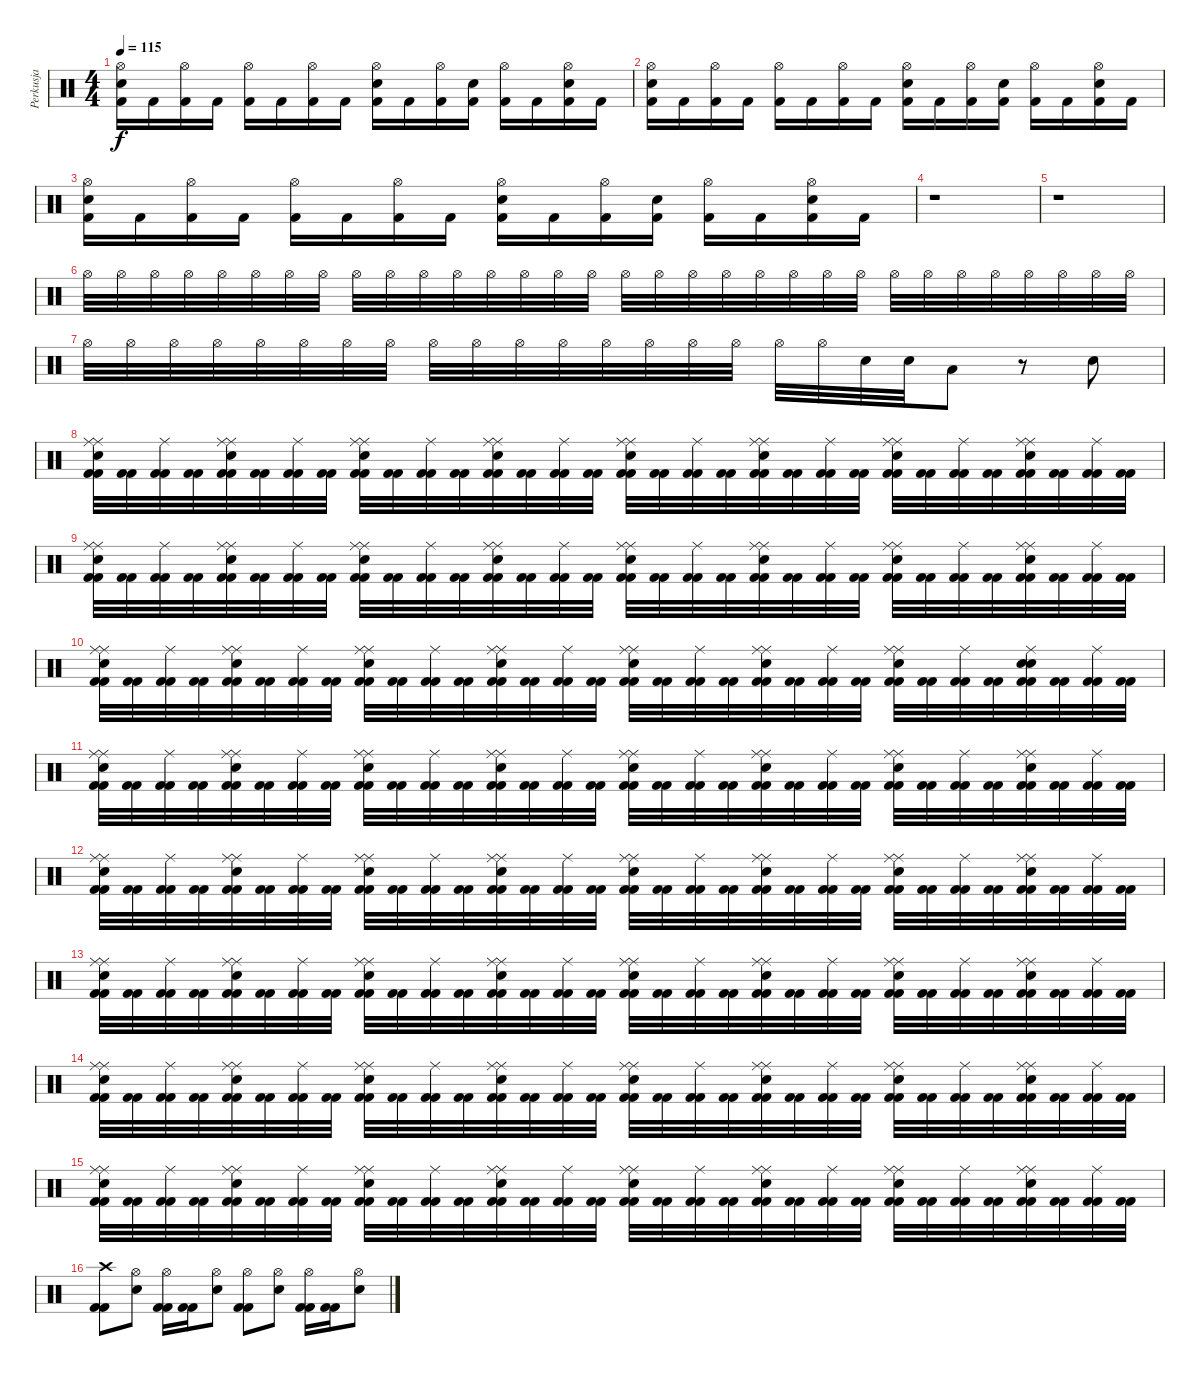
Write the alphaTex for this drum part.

\track ("Perkusja" "Perkusja") {instrument percussion}
\staff {score}
\articulation defaults
\ts (4 4)
\tempo 115
\clef neutral
\ks c
("Hi-Hat (open)" "Electric Snare (hit)" "Kick (hit) 2").16{dy f} "Kick (hit) 2".16 ("Hi-Hat (open)" "Kick (hit) 2").16 "Kick (hit) 2".16 ("Hi-Hat (open)" "Kick (hit) 2").16 "Kick (hit) 2".16 ("Hi-Hat (open)" "Kick (hit) 2").16 "Kick (hit) 2".16 ("Hi-Hat (open)" "Electric Snare (hit)" "Kick (hit) 2").16 "Kick (hit) 2".16 ("Hi-Hat (open)" "Kick (hit) 2").16 ("Electric Snare (hit)" "Kick (hit) 2").16 ("Hi-Hat (open)" "Kick (hit) 2").16 "Kick (hit) 2".16 ("Hi-Hat (open)" "Electric Snare (hit)" "Kick (hit) 2").16 "Kick (hit) 2".16 |
("Hi-Hat (open)" "Electric Snare (hit)" "Kick (hit) 2").16 "Kick (hit) 2".16 ("Hi-Hat (open)" "Kick (hit) 2").16 "Kick (hit) 2".16 ("Hi-Hat (open)" "Kick (hit) 2").16 "Kick (hit) 2".16 ("Hi-Hat (open)" "Kick (hit) 2").16 "Kick (hit) 2".16 ("Hi-Hat (open)" "Electric Snare (hit)" "Kick (hit) 2").16 "Kick (hit) 2".16 ("Hi-Hat (open)" "Kick (hit) 2").16 ("Electric Snare (hit)" "Kick (hit) 2").16 ("Hi-Hat (open)" "Kick (hit) 2").16 "Kick (hit) 2".16 ("Hi-Hat (open)" "Electric Snare (hit)" "Kick (hit) 2").16 "Kick (hit) 2".16 |
("Hi-Hat (open)" "Electric Snare (hit)" "Kick (hit) 2").16 "Kick (hit) 2".16 ("Hi-Hat (open)" "Kick (hit) 2").16 "Kick (hit) 2".16 ("Hi-Hat (open)" "Kick (hit) 2").16 "Kick (hit) 2".16 ("Hi-Hat (open)" "Kick (hit) 2").16 "Kick (hit) 2".16 ("Hi-Hat (open)" "Electric Snare (hit)" "Kick (hit) 2").16 "Kick (hit) 2".16 ("Hi-Hat (open)" "Kick (hit) 2").16 ("Electric Snare (hit)" "Kick (hit) 2").16 ("Hi-Hat (open)" "Kick (hit) 2").16 "Kick (hit) 2".16 ("Hi-Hat (open)" "Electric Snare (hit)" "Kick (hit) 2").16 "Kick (hit) 2".16 |
r.1 |
r.1 |
"Hi-Hat (open)".32 "Hi-Hat (open)".32 "Hi-Hat (open)".32 "Hi-Hat (open)".32 "Hi-Hat (open)".32 "Hi-Hat (open)".32 "Hi-Hat (open)".32 "Hi-Hat (open)".32 "Hi-Hat (open)".32 "Hi-Hat (open)".32 "Hi-Hat (open)".32 "Hi-Hat (open)".32 "Hi-Hat (open)".32 "Hi-Hat (open)".32 "Hi-Hat (open)".32 "Hi-Hat (open)".32 "Hi-Hat (open)".32 "Hi-Hat (open)".32 "Hi-Hat (open)".32 "Hi-Hat (open)".32 "Hi-Hat (open)".32 "Hi-Hat (open)".32 "Hi-Hat (open)".32 "Hi-Hat (open)".32 "Hi-Hat (open)".32 "Hi-Hat (open)".32 "Hi-Hat (open)".32 "Hi-Hat (open)".32 "Hi-Hat (open)".32 "Hi-Hat (open)".32 "Hi-Hat (open)".32 "Hi-Hat (open)".32 |
"Hi-Hat (open)".32 "Hi-Hat (open)".32 "Hi-Hat (open)".32 "Hi-Hat (open)".32 "Hi-Hat (open)".32 "Hi-Hat (open)".32 "Hi-Hat (open)".32 "Hi-Hat (open)".32 "Hi-Hat (open)".32 "Hi-Hat (open)".32 "Hi-Hat (open)".32 "Hi-Hat (open)".32 "Hi-Hat (open)".32 "Hi-Hat (open)".32 "Hi-Hat (open)".32 "Hi-Hat (open)".32 "Hi-Hat (open)".32 "Hi-Hat (open)".32 "Electric Snare (hit)".32 "Electric Snare (hit)".32 "Low Floor Tom (hit)".8 r.8 "Electric Snare (hit)".8 |
("Ride (middle)" "Ride (middle)" "Electric Snare (hit)" "Kick (hit) 2" "Kick (hit) 2").32 ("Kick (hit) 2" "Kick (hit) 2").32 ("Ride (middle)" "Kick (hit) 2" "Kick (hit) 2").32 ("Kick (hit) 2" "Kick (hit) 2").32 ("Ride (middle)" "Ride (middle)" "Electric Snare (hit)" "Kick (hit) 2" "Kick (hit) 2").32 ("Kick (hit) 2" "Kick (hit) 2").32 ("Ride (middle)" "Kick (hit) 2" "Kick (hit) 2").32 ("Kick (hit) 2" "Kick (hit) 2").32 ("Ride (middle)" "Ride (middle)" "Electric Snare (hit)" "Kick (hit) 2" "Kick (hit) 2").32 ("Kick (hit) 2" "Kick (hit) 2").32 ("Ride (middle)" "Kick (hit) 2" "Kick (hit) 2").32 ("Kick (hit) 2" "Kick (hit) 2").32 ("Ride (middle)" "Ride (middle)" "Electric Snare (hit)" "Kick (hit) 2" "Kick (hit) 2").32 ("Kick (hit) 2" "Kick (hit) 2").32 ("Ride (middle)" "Kick (hit) 2" "Kick (hit) 2").32 ("Kick (hit) 2" "Kick (hit) 2").32 ("Ride (middle)" "Ride (middle)" "Electric Snare (hit)" "Kick (hit) 2" "Kick (hit) 2").32 ("Kick (hit) 2" "Kick (hit) 2").32 ("Ride (middle)" "Kick (hit) 2" "Kick (hit) 2").32 ("Kick (hit) 2" "Kick (hit) 2").32 ("Ride (middle)" "Ride (middle)" "Electric Snare (hit)" "Kick (hit) 2" "Kick (hit) 2").32 ("Kick (hit) 2" "Kick (hit) 2").32 ("Ride (middle)" "Kick (hit) 2" "Kick (hit) 2").32 ("Kick (hit) 2" "Kick (hit) 2").32 ("Ride (middle)" "Ride (middle)" "Electric Snare (hit)" "Kick (hit) 2" "Kick (hit) 2").32 ("Kick (hit) 2" "Kick (hit) 2").32 ("Ride (middle)" "Kick (hit) 2" "Kick (hit) 2").32 ("Kick (hit) 2" "Kick (hit) 2").32 ("Ride (middle)" "Ride (middle)" "Electric Snare (hit)" "Kick (hit) 2" "Kick (hit) 2").32 ("Kick (hit) 2" "Kick (hit) 2").32 ("Ride (middle)" "Kick (hit) 2" "Kick (hit) 2").32 ("Kick (hit) 2" "Kick (hit) 2").32 |
("Ride (middle)" "Ride (middle)" "Electric Snare (hit)" "Kick (hit) 2" "Kick (hit) 2").32 ("Kick (hit) 2" "Kick (hit) 2").32 ("Ride (middle)" "Kick (hit) 2" "Kick (hit) 2").32 ("Kick (hit) 2" "Kick (hit) 2").32 ("Ride (middle)" "Ride (middle)" "Electric Snare (hit)" "Kick (hit) 2" "Kick (hit) 2").32 ("Kick (hit) 2" "Kick (hit) 2").32 ("Ride (middle)" "Kick (hit) 2" "Kick (hit) 2").32 ("Kick (hit) 2" "Kick (hit) 2").32 ("Ride (middle)" "Ride (middle)" "Electric Snare (hit)" "Kick (hit) 2" "Kick (hit) 2").32 ("Kick (hit) 2" "Kick (hit) 2").32 ("Ride (middle)" "Kick (hit) 2" "Kick (hit) 2").32 ("Kick (hit) 2" "Kick (hit) 2").32 ("Ride (middle)" "Ride (middle)" "Electric Snare (hit)" "Kick (hit) 2" "Kick (hit) 2").32 ("Kick (hit) 2" "Kick (hit) 2").32 ("Ride (middle)" "Kick (hit) 2" "Kick (hit) 2").32 ("Kick (hit) 2" "Kick (hit) 2").32 ("Ride (middle)" "Ride (middle)" "Electric Snare (hit)" "Kick (hit) 2" "Kick (hit) 2").32 ("Kick (hit) 2" "Kick (hit) 2").32 ("Ride (middle)" "Kick (hit) 2" "Kick (hit) 2").32 ("Kick (hit) 2" "Kick (hit) 2").32 ("Ride (middle)" "Ride (middle)" "Electric Snare (hit)" "Kick (hit) 2" "Kick (hit) 2").32 ("Kick (hit) 2" "Kick (hit) 2").32 ("Ride (middle)" "Kick (hit) 2" "Kick (hit) 2").32 ("Kick (hit) 2" "Kick (hit) 2").32 ("Ride (middle)" "Ride (middle)" "Electric Snare (hit)" "Kick (hit) 2" "Kick (hit) 2").32 ("Kick (hit) 2" "Kick (hit) 2").32 ("Ride (middle)" "Kick (hit) 2" "Kick (hit) 2").32 ("Kick (hit) 2" "Kick (hit) 2").32 ("Ride (middle)" "Ride (middle)" "Electric Snare (hit)" "Kick (hit) 2" "Kick (hit) 2").32 ("Kick (hit) 2" "Kick (hit) 2").32 ("Ride (middle)" "Kick (hit) 2" "Kick (hit) 2").32 ("Kick (hit) 2" "Kick (hit) 2").32 |
("Ride (middle)" "Ride (middle)" "Electric Snare (hit)" "Kick (hit) 2" "Kick (hit) 2").32 ("Kick (hit) 2" "Kick (hit) 2").32 ("Ride (middle)" "Kick (hit) 2" "Kick (hit) 2").32 ("Kick (hit) 2" "Kick (hit) 2").32 ("Ride (middle)" "Ride (middle)" "Electric Snare (hit)" "Kick (hit) 2" "Kick (hit) 2").32 ("Kick (hit) 2" "Kick (hit) 2").32 ("Ride (middle)" "Kick (hit) 2" "Kick (hit) 2").32 ("Kick (hit) 2" "Kick (hit) 2").32 ("Ride (middle)" "Ride (middle)" "Electric Snare (hit)" "Kick (hit) 2" "Kick (hit) 2").32 ("Kick (hit) 2" "Kick (hit) 2").32 ("Ride (middle)" "Kick (hit) 2" "Kick (hit) 2").32 ("Kick (hit) 2" "Kick (hit) 2").32 ("Ride (middle)" "Ride (middle)" "Electric Snare (hit)" "Kick (hit) 2" "Kick (hit) 2").32 ("Kick (hit) 2" "Kick (hit) 2").32 ("Ride (middle)" "Kick (hit) 2" "Kick (hit) 2").32 ("Kick (hit) 2" "Kick (hit) 2").32 ("Ride (middle)" "Ride (middle)" "Electric Snare (hit)" "Kick (hit) 2" "Kick (hit) 2").32 ("Kick (hit) 2" "Kick (hit) 2").32 ("Ride (middle)" "Kick (hit) 2" "Kick (hit) 2").32 ("Kick (hit) 2" "Kick (hit) 2").32 ("Ride (middle)" "Ride (middle)" "Electric Snare (hit)" "Kick (hit) 2" "Kick (hit) 2").32 ("Kick (hit) 2" "Kick (hit) 2").32 ("Ride (middle)" "Kick (hit) 2" "Kick (hit) 2").32 ("Kick (hit) 2" "Kick (hit) 2").32 ("Ride (middle)" "Ride (middle)" "Electric Snare (hit)" "Kick (hit) 2" "Kick (hit) 2").32 ("Kick (hit) 2" "Kick (hit) 2").32 ("Ride (middle)" "Kick (hit) 2" "Kick (hit) 2").32 ("Kick (hit) 2" "Kick (hit) 2").32 ("Ride (middle)" "Snare (hit)" "Electric Snare (hit)" "Kick (hit) 2" "Kick (hit) 2").32 ("Kick (hit) 2" "Kick (hit) 2").32 ("Ride (middle)" "Kick (hit) 2" "Kick (hit) 2").32 ("Kick (hit) 2" "Kick (hit) 2").32 |
("Ride (middle)" "Ride (middle)" "Electric Snare (hit)" "Kick (hit) 2" "Kick (hit) 2").32 ("Kick (hit) 2" "Kick (hit) 2").32 ("Ride (middle)" "Kick (hit) 2" "Kick (hit) 2").32 ("Kick (hit) 2" "Kick (hit) 2").32 ("Ride (middle)" "Ride (middle)" "Electric Snare (hit)" "Kick (hit) 2" "Kick (hit) 2").32 ("Kick (hit) 2" "Kick (hit) 2").32 ("Ride (middle)" "Kick (hit) 2" "Kick (hit) 2").32 ("Kick (hit) 2" "Kick (hit) 2").32 ("Ride (middle)" "Ride (middle)" "Electric Snare (hit)" "Kick (hit) 2" "Kick (hit) 2").32 ("Kick (hit) 2" "Kick (hit) 2").32 ("Ride (middle)" "Kick (hit) 2" "Kick (hit) 2").32 ("Kick (hit) 2" "Kick (hit) 2").32 ("Ride (middle)" "Ride (middle)" "Electric Snare (hit)" "Kick (hit) 2" "Kick (hit) 2").32 ("Kick (hit) 2" "Kick (hit) 2").32 ("Ride (middle)" "Kick (hit) 2" "Kick (hit) 2").32 ("Kick (hit) 2" "Kick (hit) 2").32 ("Ride (middle)" "Ride (middle)" "Electric Snare (hit)" "Kick (hit) 2" "Kick (hit) 2").32 ("Kick (hit) 2" "Kick (hit) 2").32 ("Ride (middle)" "Kick (hit) 2" "Kick (hit) 2").32 ("Kick (hit) 2" "Kick (hit) 2").32 ("Ride (middle)" "Ride (middle)" "Electric Snare (hit)" "Kick (hit) 2" "Kick (hit) 2").32 ("Kick (hit) 2" "Kick (hit) 2").32 ("Ride (middle)" "Kick (hit) 2" "Kick (hit) 2").32 ("Kick (hit) 2" "Kick (hit) 2").32 ("Ride (middle)" "Ride (middle)" "Electric Snare (hit)" "Kick (hit) 2" "Kick (hit) 2").32 ("Kick (hit) 2" "Kick (hit) 2").32 ("Ride (middle)" "Kick (hit) 2" "Kick (hit) 2").32 ("Kick (hit) 2" "Kick (hit) 2").32 ("Ride (middle)" "Ride (middle)" "Electric Snare (hit)" "Kick (hit) 2" "Kick (hit) 2").32 ("Kick (hit) 2" "Kick (hit) 2").32 ("Ride (middle)" "Kick (hit) 2" "Kick (hit) 2").32 ("Kick (hit) 2" "Kick (hit) 2").32 |
("Ride (middle)" "Ride (middle)" "Electric Snare (hit)" "Kick (hit) 2" "Kick (hit) 2").32 ("Kick (hit) 2" "Kick (hit) 2").32 ("Ride (middle)" "Kick (hit) 2" "Kick (hit) 2").32 ("Kick (hit) 2" "Kick (hit) 2").32 ("Ride (middle)" "Ride (middle)" "Electric Snare (hit)" "Kick (hit) 2" "Kick (hit) 2").32 ("Kick (hit) 2" "Kick (hit) 2").32 ("Ride (middle)" "Kick (hit) 2" "Kick (hit) 2").32 ("Kick (hit) 2" "Kick (hit) 2").32 ("Ride (middle)" "Ride (middle)" "Electric Snare (hit)" "Kick (hit) 2" "Kick (hit) 2").32 ("Kick (hit) 2" "Kick (hit) 2").32 ("Ride (middle)" "Kick (hit) 2" "Kick (hit) 2").32 ("Kick (hit) 2" "Kick (hit) 2").32 ("Ride (middle)" "Ride (middle)" "Electric Snare (hit)" "Kick (hit) 2" "Kick (hit) 2").32 ("Kick (hit) 2" "Kick (hit) 2").32 ("Ride (middle)" "Kick (hit) 2" "Kick (hit) 2").32 ("Kick (hit) 2" "Kick (hit) 2").32 ("Ride (middle)" "Ride (middle)" "Electric Snare (hit)" "Kick (hit) 2" "Kick (hit) 2").32 ("Kick (hit) 2" "Kick (hit) 2").32 ("Ride (middle)" "Kick (hit) 2" "Kick (hit) 2").32 ("Kick (hit) 2" "Kick (hit) 2").32 ("Ride (middle)" "Ride (middle)" "Electric Snare (hit)" "Kick (hit) 2" "Kick (hit) 2").32 ("Kick (hit) 2" "Kick (hit) 2").32 ("Ride (middle)" "Kick (hit) 2" "Kick (hit) 2").32 ("Kick (hit) 2" "Kick (hit) 2").32 ("Ride (middle)" "Ride (middle)" "Electric Snare (hit)" "Kick (hit) 2" "Kick (hit) 2").32 ("Kick (hit) 2" "Kick (hit) 2").32 ("Ride (middle)" "Kick (hit) 2" "Kick (hit) 2").32 ("Kick (hit) 2" "Kick (hit) 2").32 ("Ride (middle)" "Ride (middle)" "Electric Snare (hit)" "Kick (hit) 2" "Kick (hit) 2").32 ("Kick (hit) 2" "Kick (hit) 2").32 ("Ride (middle)" "Kick (hit) 2" "Kick (hit) 2").32 ("Kick (hit) 2" "Kick (hit) 2").32 |
("Ride (middle)" "Ride (middle)" "Electric Snare (hit)" "Kick (hit) 2" "Kick (hit) 2").32 ("Kick (hit) 2" "Kick (hit) 2").32 ("Ride (middle)" "Kick (hit) 2" "Kick (hit) 2").32 ("Kick (hit) 2" "Kick (hit) 2").32 ("Ride (middle)" "Ride (middle)" "Electric Snare (hit)" "Kick (hit) 2" "Kick (hit) 2").32 ("Kick (hit) 2" "Kick (hit) 2").32 ("Ride (middle)" "Kick (hit) 2" "Kick (hit) 2").32 ("Kick (hit) 2" "Kick (hit) 2").32 ("Ride (middle)" "Ride (middle)" "Electric Snare (hit)" "Kick (hit) 2" "Kick (hit) 2").32 ("Kick (hit) 2" "Kick (hit) 2").32 ("Ride (middle)" "Kick (hit) 2" "Kick (hit) 2").32 ("Kick (hit) 2" "Kick (hit) 2").32 ("Ride (middle)" "Ride (middle)" "Electric Snare (hit)" "Kick (hit) 2" "Kick (hit) 2").32 ("Kick (hit) 2" "Kick (hit) 2").32 ("Ride (middle)" "Kick (hit) 2" "Kick (hit) 2").32 ("Kick (hit) 2" "Kick (hit) 2").32 ("Ride (middle)" "Ride (middle)" "Electric Snare (hit)" "Kick (hit) 2" "Kick (hit) 2").32 ("Kick (hit) 2" "Kick (hit) 2").32 ("Ride (middle)" "Kick (hit) 2" "Kick (hit) 2").32 ("Kick (hit) 2" "Kick (hit) 2").32 ("Ride (middle)" "Ride (middle)" "Electric Snare (hit)" "Kick (hit) 2" "Kick (hit) 2").32 ("Kick (hit) 2" "Kick (hit) 2").32 ("Ride (middle)" "Kick (hit) 2" "Kick (hit) 2").32 ("Kick (hit) 2" "Kick (hit) 2").32 ("Ride (middle)" "Ride (middle)" "Electric Snare (hit)" "Kick (hit) 2" "Kick (hit) 2").32 ("Kick (hit) 2" "Kick (hit) 2").32 ("Ride (middle)" "Kick (hit) 2" "Kick (hit) 2").32 ("Kick (hit) 2" "Kick (hit) 2").32 ("Ride (middle)" "Ride (middle)" "Electric Snare (hit)" "Kick (hit) 2" "Kick (hit) 2").32 ("Kick (hit) 2" "Kick (hit) 2").32 ("Ride (middle)" "Kick (hit) 2" "Kick (hit) 2").32 ("Kick (hit) 2" "Kick (hit) 2").32 |
("Ride (middle)" "Ride (middle)" "Electric Snare (hit)" "Kick (hit) 2" "Kick (hit) 2").32 ("Kick (hit) 2" "Kick (hit) 2").32 ("Ride (middle)" "Kick (hit) 2" "Kick (hit) 2").32 ("Kick (hit) 2" "Kick (hit) 2").32 ("Ride (middle)" "Ride (middle)" "Electric Snare (hit)" "Kick (hit) 2" "Kick (hit) 2").32 ("Kick (hit) 2" "Kick (hit) 2").32 ("Ride (middle)" "Kick (hit) 2" "Kick (hit) 2").32 ("Kick (hit) 2" "Kick (hit) 2").32 ("Ride (middle)" "Ride (middle)" "Electric Snare (hit)" "Kick (hit) 2" "Kick (hit) 2").32 ("Kick (hit) 2" "Kick (hit) 2").32 ("Ride (middle)" "Kick (hit) 2" "Kick (hit) 2").32 ("Kick (hit) 2" "Kick (hit) 2").32 ("Ride (middle)" "Ride (middle)" "Electric Snare (hit)" "Kick (hit) 2" "Kick (hit) 2").32 ("Kick (hit) 2" "Kick (hit) 2").32 ("Ride (middle)" "Kick (hit) 2" "Kick (hit) 2").32 ("Kick (hit) 2" "Kick (hit) 2").32 ("Ride (middle)" "Ride (middle)" "Electric Snare (hit)" "Kick (hit) 2" "Kick (hit) 2").32 ("Kick (hit) 2" "Kick (hit) 2").32 ("Ride (middle)" "Kick (hit) 2" "Kick (hit) 2").32 ("Kick (hit) 2" "Kick (hit) 2").32 ("Ride (middle)" "Ride (middle)" "Electric Snare (hit)" "Kick (hit) 2" "Kick (hit) 2").32 ("Kick (hit) 2" "Kick (hit) 2").32 ("Ride (middle)" "Kick (hit) 2" "Kick (hit) 2").32 ("Kick (hit) 2" "Kick (hit) 2").32 ("Ride (middle)" "Ride (middle)" "Electric Snare (hit)" "Kick (hit) 2" "Kick (hit) 2").32 ("Kick (hit) 2" "Kick (hit) 2").32 ("Ride (middle)" "Kick (hit) 2" "Kick (hit) 2").32 ("Kick (hit) 2" "Kick (hit) 2").32 ("Ride (middle)" "Ride (middle)" "Electric Snare (hit)" "Kick (hit) 2" "Kick (hit) 2").32 ("Kick (hit) 2" "Kick (hit) 2").32 ("Ride (middle)" "Kick (hit) 2" "Kick (hit) 2").32 ("Kick (hit) 2" "Kick (hit) 2").32 |
("Ride (middle)" "Ride (middle)" "Electric Snare (hit)" "Kick (hit) 2" "Kick (hit) 2").32 ("Kick (hit) 2" "Kick (hit) 2").32 ("Ride (middle)" "Kick (hit) 2" "Kick (hit) 2").32 ("Kick (hit) 2" "Kick (hit) 2").32 ("Ride (middle)" "Ride (middle)" "Electric Snare (hit)" "Kick (hit) 2" "Kick (hit) 2").32 ("Kick (hit) 2" "Kick (hit) 2").32 ("Ride (middle)" "Kick (hit) 2" "Kick (hit) 2").32 ("Kick (hit) 2" "Kick (hit) 2").32 ("Ride (middle)" "Ride (middle)" "Electric Snare (hit)" "Kick (hit) 2" "Kick (hit) 2").32 ("Kick (hit) 2" "Kick (hit) 2").32 ("Ride (middle)" "Kick (hit) 2" "Kick (hit) 2").32 ("Kick (hit) 2" "Kick (hit) 2").32 ("Ride (middle)" "Ride (middle)" "Electric Snare (hit)" "Kick (hit) 2" "Kick (hit) 2").32 ("Kick (hit) 2" "Kick (hit) 2").32 ("Ride (middle)" "Kick (hit) 2" "Kick (hit) 2").32 ("Kick (hit) 2" "Kick (hit) 2").32 ("Ride (middle)" "Ride (middle)" "Electric Snare (hit)" "Kick (hit) 2" "Kick (hit) 2").32 ("Kick (hit) 2" "Kick (hit) 2").32 ("Ride (middle)" "Kick (hit) 2" "Kick (hit) 2").32 ("Kick (hit) 2" "Kick (hit) 2").32 ("Ride (middle)" "Ride (middle)" "Electric Snare (hit)" "Kick (hit) 2" "Kick (hit) 2").32 ("Kick (hit) 2" "Kick (hit) 2").32 ("Ride (middle)" "Kick (hit) 2" "Kick (hit) 2").32 ("Kick (hit) 2" "Kick (hit) 2").32 ("Ride (middle)" "Ride (middle)" "Electric Snare (hit)" "Kick (hit) 2" "Kick (hit) 2").32 ("Kick (hit) 2" "Kick (hit) 2").32 ("Ride (middle)" "Kick (hit) 2" "Kick (hit) 2").32 ("Kick (hit) 2" "Kick (hit) 2").32 ("Ride (middle)" "Ride (middle)" "Electric Snare (hit)" "Kick (hit) 2" "Kick (hit) 2").32 ("Kick (hit) 2" "Kick (hit) 2").32 ("Ride (middle)" "Kick (hit) 2" "Kick (hit) 2").32 ("Kick (hit) 2" "Kick (hit) 2").32 |
("Crash high (hit)" "Kick (hit) 2" "Kick (hit) 2").8 ("Hi-Hat (open)" "Electric Snare (hit)").8 ("Hi-Hat (open)" "Kick (hit) 2" "Kick (hit) 2").16 ("Kick (hit) 2" "Kick (hit) 2").16 ("Hi-Hat (open)" "Electric Snare (hit)").8 ("Hi-Hat (open)" "Kick (hit) 2" "Kick (hit) 2").8 ("Hi-Hat (open)" "Electric Snare (hit)").8 ("Hi-Hat (open)" "Kick (hit) 2" "Kick (hit) 2").16 ("Kick (hit) 2" "Kick (hit) 2").16 ("Hi-Hat (open)" "Electric Snare (hit)").8
